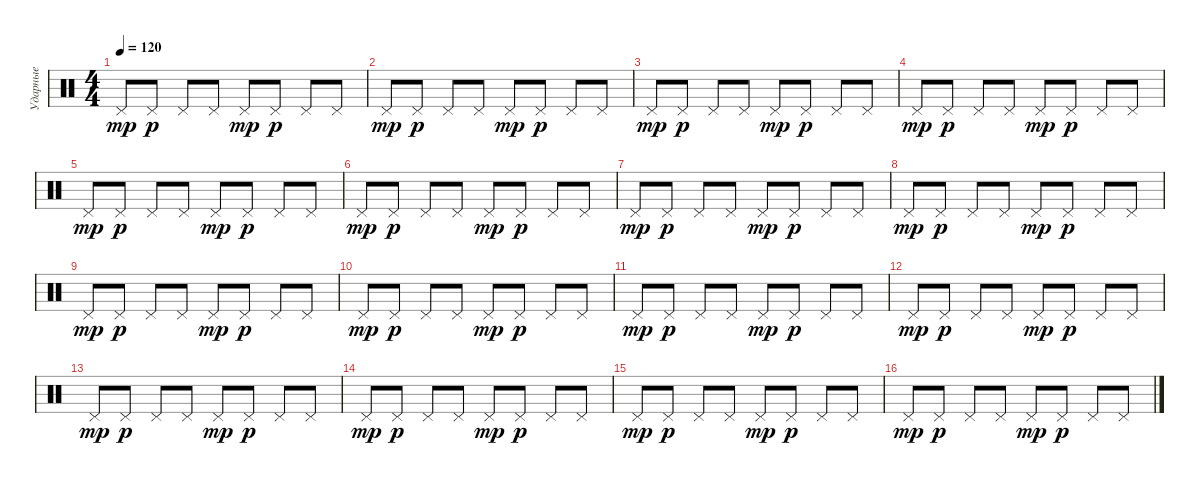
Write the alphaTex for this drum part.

\track ("Ударные" "Ударные") {instrument percussion}
\staff {score}
\articulation defaults
\ts (4 4)
\tempo 120
\clef neutral
\ks c "Pedal Hi-Hat (hit)".8{dy mp} "Pedal Hi-Hat (hit)".8{dy p} "Pedal Hi-Hat (hit)".8 "Pedal Hi-Hat (hit)".8 "Pedal Hi-Hat (hit)".8{dy mp} "Pedal Hi-Hat (hit)".8{dy p} "Pedal Hi-Hat (hit)".8 "Pedal Hi-Hat (hit)".8
|
"Pedal Hi-Hat (hit)".8{dy mp} "Pedal Hi-Hat (hit)".8{dy p} "Pedal Hi-Hat (hit)".8 "Pedal Hi-Hat (hit)".8 "Pedal Hi-Hat (hit)".8{dy mp} "Pedal Hi-Hat (hit)".8{dy p} "Pedal Hi-Hat (hit)".8 "Pedal Hi-Hat (hit)".8 |
"Pedal Hi-Hat (hit)".8{dy mp} "Pedal Hi-Hat (hit)".8{dy p} "Pedal Hi-Hat (hit)".8 "Pedal Hi-Hat (hit)".8 "Pedal Hi-Hat (hit)".8{dy mp} "Pedal Hi-Hat (hit)".8{dy p} "Pedal Hi-Hat (hit)".8 "Pedal Hi-Hat (hit)".8 |
"Pedal Hi-Hat (hit)".8{dy mp} "Pedal Hi-Hat (hit)".8{dy p} "Pedal Hi-Hat (hit)".8 "Pedal Hi-Hat (hit)".8 "Pedal Hi-Hat (hit)".8{dy mp} "Pedal Hi-Hat (hit)".8{dy p} "Pedal Hi-Hat (hit)".8 "Pedal Hi-Hat (hit)".8 |
"Pedal Hi-Hat (hit)".8{dy mp} "Pedal Hi-Hat (hit)".8{dy p} "Pedal Hi-Hat (hit)".8 "Pedal Hi-Hat (hit)".8 "Pedal Hi-Hat (hit)".8{dy mp} "Pedal Hi-Hat (hit)".8{dy p} "Pedal Hi-Hat (hit)".8 "Pedal Hi-Hat (hit)".8 |
"Pedal Hi-Hat (hit)".8{dy mp} "Pedal Hi-Hat (hit)".8{dy p} "Pedal Hi-Hat (hit)".8 "Pedal Hi-Hat (hit)".8 "Pedal Hi-Hat (hit)".8{dy mp} "Pedal Hi-Hat (hit)".8{dy p} "Pedal Hi-Hat (hit)".8 "Pedal Hi-Hat (hit)".8 |
"Pedal Hi-Hat (hit)".8{dy mp} "Pedal Hi-Hat (hit)".8{dy p} "Pedal Hi-Hat (hit)".8 "Pedal Hi-Hat (hit)".8 "Pedal Hi-Hat (hit)".8{dy mp} "Pedal Hi-Hat (hit)".8{dy p} "Pedal Hi-Hat (hit)".8 "Pedal Hi-Hat (hit)".8 |
"Pedal Hi-Hat (hit)".8{dy mp} "Pedal Hi-Hat (hit)".8{dy p} "Pedal Hi-Hat (hit)".8 "Pedal Hi-Hat (hit)".8 "Pedal Hi-Hat (hit)".8{dy mp} "Pedal Hi-Hat (hit)".8{dy p} "Pedal Hi-Hat (hit)".8 "Pedal Hi-Hat (hit)".8 |
"Pedal Hi-Hat (hit)".8{dy mp} "Pedal Hi-Hat (hit)".8{dy p} "Pedal Hi-Hat (hit)".8 "Pedal Hi-Hat (hit)".8 "Pedal Hi-Hat (hit)".8{dy mp} "Pedal Hi-Hat (hit)".8{dy p} "Pedal Hi-Hat (hit)".8 "Pedal Hi-Hat (hit)".8 |
"Pedal Hi-Hat (hit)".8{dy mp} "Pedal Hi-Hat (hit)".8{dy p} "Pedal Hi-Hat (hit)".8 "Pedal Hi-Hat (hit)".8 "Pedal Hi-Hat (hit)".8{dy mp} "Pedal Hi-Hat (hit)".8{dy p} "Pedal Hi-Hat (hit)".8 "Pedal Hi-Hat (hit)".8 |
"Pedal Hi-Hat (hit)".8{dy mp} "Pedal Hi-Hat (hit)".8{dy p} "Pedal Hi-Hat (hit)".8 "Pedal Hi-Hat (hit)".8 "Pedal Hi-Hat (hit)".8{dy mp} "Pedal Hi-Hat (hit)".8{dy p} "Pedal Hi-Hat (hit)".8 "Pedal Hi-Hat (hit)".8 |
"Pedal Hi-Hat (hit)".8{dy mp} "Pedal Hi-Hat (hit)".8{dy p} "Pedal Hi-Hat (hit)".8 "Pedal Hi-Hat (hit)".8 "Pedal Hi-Hat (hit)".8{dy mp} "Pedal Hi-Hat (hit)".8{dy p} "Pedal Hi-Hat (hit)".8 "Pedal Hi-Hat (hit)".8 |
"Pedal Hi-Hat (hit)".8{dy mp} "Pedal Hi-Hat (hit)".8{dy p} "Pedal Hi-Hat (hit)".8 "Pedal Hi-Hat (hit)".8 "Pedal Hi-Hat (hit)".8{dy mp} "Pedal Hi-Hat (hit)".8{dy p} "Pedal Hi-Hat (hit)".8 "Pedal Hi-Hat (hit)".8 |
"Pedal Hi-Hat (hit)".8{dy mp} "Pedal Hi-Hat (hit)".8{dy p} "Pedal Hi-Hat (hit)".8 "Pedal Hi-Hat (hit)".8 "Pedal Hi-Hat (hit)".8{dy mp} "Pedal Hi-Hat (hit)".8{dy p} "Pedal Hi-Hat (hit)".8 "Pedal Hi-Hat (hit)".8 |
"Pedal Hi-Hat (hit)".8{dy mp} "Pedal Hi-Hat (hit)".8{dy p} "Pedal Hi-Hat (hit)".8 "Pedal Hi-Hat (hit)".8 "Pedal Hi-Hat (hit)".8{dy mp} "Pedal Hi-Hat (hit)".8{dy p} "Pedal Hi-Hat (hit)".8 "Pedal Hi-Hat (hit)".8 |
"Pedal Hi-Hat (hit)".8{dy mp} "Pedal Hi-Hat (hit)".8{dy p} "Pedal Hi-Hat (hit)".8 "Pedal Hi-Hat (hit)".8 "Pedal Hi-Hat (hit)".8{dy mp} "Pedal Hi-Hat (hit)".8{dy p} "Pedal Hi-Hat (hit)".8 "Pedal Hi-Hat (hit)".8
